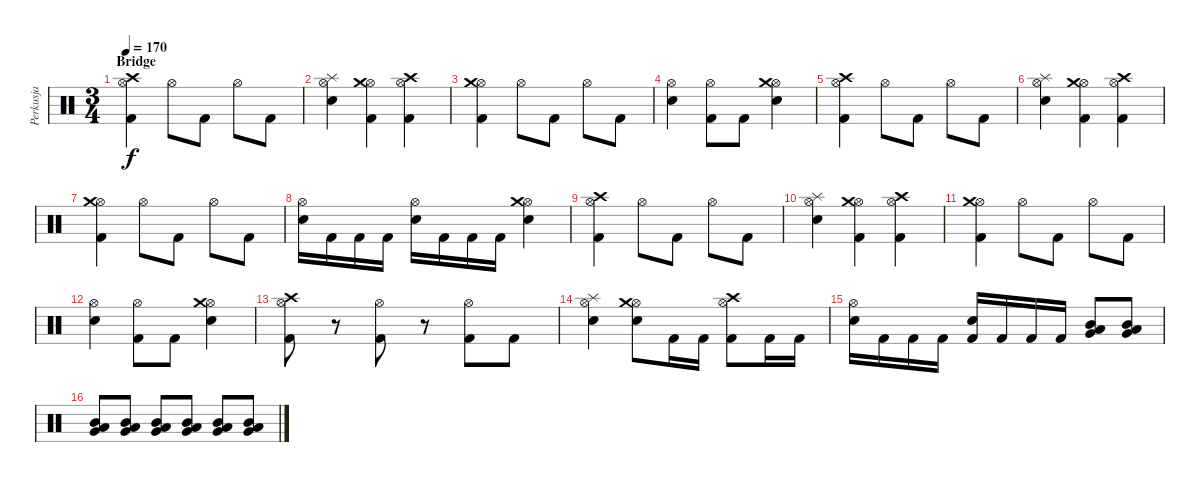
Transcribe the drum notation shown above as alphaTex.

\track ("Perkusja" "Perkusja") {instrument percussion}
\staff {score}
\articulation defaults
\ts (3 4)
\section ("" "Bridge")
\tempo 170
\clef neutral
\ks c
("Hi-Hat (open)" "Kick (hit) 2" "Crash high (hit)").4{dy f} "Hi-Hat (open)".8 "Kick (hit) 2".8 "Hi-Hat (open)".8 "Kick (hit) 2".8 |
("Hi-Hat (open)" "Snare (hit) 2" "Splash (hit)").4 ("Hi-Hat (open)" "Kick (hit) 2" "Crash medium (hit)").4 ("Hi-Hat (open)" "Kick (hit) 2" "Crash high (hit)").4 |
("Hi-Hat (open)" "Kick (hit) 2" "Crash medium (hit)").4 "Hi-Hat (open)".8 "Kick (hit) 2".8 "Hi-Hat (open)".8 "Kick (hit) 2".8 |
("Hi-Hat (open)" "Snare (hit) 2").4 ("Hi-Hat (open)" "Kick (hit) 2").8 "Kick (hit) 2".8 ("Hi-Hat (open)" "Snare (hit) 2" "Crash medium (hit)").4 |
("Hi-Hat (open)" "Kick (hit) 2" "Crash high (hit)").4 "Hi-Hat (open)".8 "Kick (hit) 2".8 "Hi-Hat (open)".8 "Kick (hit) 2".8 |
("Hi-Hat (open)" "Snare (hit) 2" "Splash (hit)").4 ("Hi-Hat (open)" "Kick (hit) 2" "Crash medium (hit)").4 ("Hi-Hat (open)" "Kick (hit) 2" "Crash high (hit)").4 |
("Hi-Hat (open)" "Kick (hit) 2" "Crash medium (hit)").4 "Hi-Hat (open)".8 "Kick (hit) 2".8 "Hi-Hat (open)".8 "Kick (hit) 2".8 |
("Hi-Hat (open)" "Snare (hit) 2").16 "Kick (hit) 2".16 "Kick (hit) 2".16 "Kick (hit) 2".16 ("Hi-Hat (open)" "Snare (hit) 2").16 "Kick (hit) 2".16 "Kick (hit) 2".16 "Kick (hit) 2".16 ("Hi-Hat (open)" "Snare (hit) 2" "Crash medium (hit)").4 |
("Hi-Hat (open)" "Kick (hit) 2" "Crash high (hit)").4 "Hi-Hat (open)".8 "Kick (hit) 2".8 "Hi-Hat (open)".8 "Kick (hit) 2".8 |
("Hi-Hat (open)" "Snare (hit) 2" "Splash (hit)").4 ("Hi-Hat (open)" "Kick (hit) 2" "Crash medium (hit)").4 ("Hi-Hat (open)" "Kick (hit) 2" "Crash high (hit)").4 |
("Hi-Hat (open)" "Kick (hit) 2" "Crash medium (hit)").4 "Hi-Hat (open)".8 "Kick (hit) 2".8 "Hi-Hat (open)".8 "Kick (hit) 2".8 |
("Hi-Hat (open)" "Snare (hit) 2").4 ("Hi-Hat (open)" "Kick (hit) 2").8 "Kick (hit) 2".8 ("Hi-Hat (open)" "Snare (hit) 2" "Crash medium (hit)").4 |
("Hi-Hat (open)" "Kick (hit) 2" "Crash high (hit)").8 r.8 ("Hi-Hat (open)" "Kick (hit) 2").8 r.8 ("Hi-Hat (open)" "Kick (hit) 2").8 "Kick (hit) 2".8 |
("Hi-Hat (open)" "Snare (hit) 2" "Splash (hit)").4 ("Hi-Hat (open)" "Snare (hit) 2" "Crash medium (hit)").8 "Kick (hit) 2".16 "Kick (hit) 2".16 ("Hi-Hat (open)" "Kick (hit) 2" "Crash high (hit)").8 "Kick (hit) 2".16 "Kick (hit) 2".16 |
("Hi-Hat (open)" "Snare (hit) 2").16 "Kick (hit) 2".16 "Kick (hit) 2".16 "Kick (hit) 2".16 ("Snare (hit) 2" "Kick (hit) 2").16 "Kick (hit) 2".16 "Kick (hit) 2".16 "Kick (hit) 2".16 ("Low Tom (hit)" "Mid Tom (hit)" "Very Low Tom (hit)").8 ("Low Tom (hit)" "Mid Tom (hit)" "Very Low Tom (hit)").8 |
("Low Tom (hit)" "Mid Tom (hit)" "Very Low Tom (hit)").8 ("Low Tom (hit)" "Mid Tom (hit)" "Very Low Tom (hit)").8 ("Low Tom (hit)" "Mid Tom (hit)" "Very Low Tom (hit)").8 ("Low Tom (hit)" "Mid Tom (hit)" "Very Low Tom (hit)").8 ("Low Tom (hit)" "Mid Tom (hit)" "Very Low Tom (hit)").8 ("Low Tom (hit)" "Mid Tom (hit)" "Very Low Tom (hit)").8
